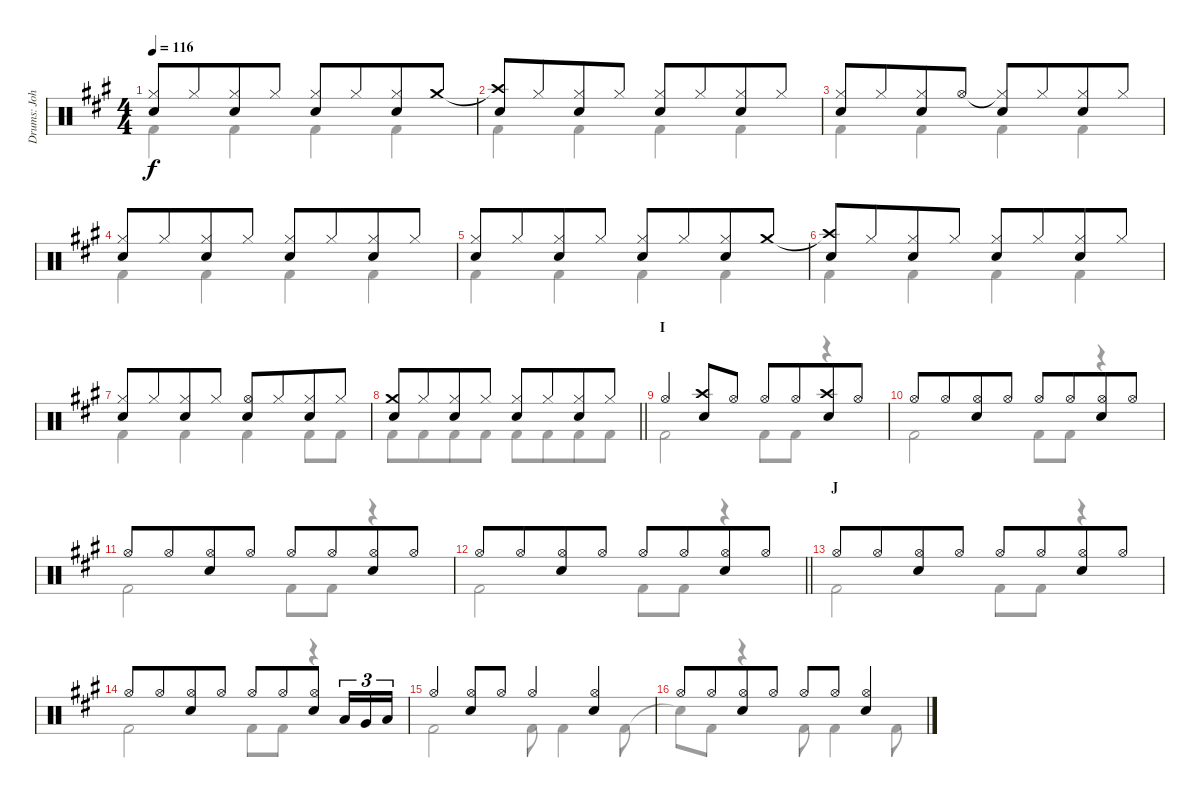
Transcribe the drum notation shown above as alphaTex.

\track ("Drums: John" "Drums: Joh") {instrument percussion}
\staff {score}
\articulation defaults
\voice
\ts (4 4)
\tempo 116
\clef neutral
\ks a
("Hi-Hat (closed)" "Electric Snare (hit)").8{dy f} "Hi-Hat (closed)".8{beam merge} ("Hi-Hat (closed)" "Electric Snare (hit)").8 "Hi-Hat (closed)".8 ("Hi-Hat (closed)" "Electric Snare (hit)").8 "Hi-Hat (closed)".8{beam merge} ("Hi-Hat (closed)" "Electric Snare (hit)").8 "Crash medium (hit)".8 |
("Crash high (hit)"{t} "Electric Snare (hit)").8 "Hi-Hat (closed)".8{beam merge} ("Hi-Hat (closed)" "Electric Snare (hit)").8 "Hi-Hat (closed)".8 ("Hi-Hat (closed)" "Electric Snare (hit)").8 "Hi-Hat (closed)".8{beam merge} ("Hi-Hat (closed)" "Electric Snare (hit)").8 "Hi-Hat (closed)".8 |
("Hi-Hat (closed)" "Electric Snare (hit)").8 "Hi-Hat (closed)".8{beam merge} ("Hi-Hat (closed)" "Electric Snare (hit)").8 "Hi-Hat (open)".8 ("Hi-Hat (closed)"{t} "Electric Snare (hit)").8 "Hi-Hat (closed)".8{beam merge} ("Hi-Hat (closed)" "Electric Snare (hit)").8 "Hi-Hat (closed)".8 |
("Hi-Hat (closed)" "Electric Snare (hit)").8 "Hi-Hat (closed)".8{beam merge} ("Hi-Hat (closed)" "Electric Snare (hit)").8 "Hi-Hat (closed)".8 ("Hi-Hat (closed)" "Electric Snare (hit)").8 "Hi-Hat (closed)".8{beam merge} ("Hi-Hat (closed)" "Electric Snare (hit)").8 "Hi-Hat (closed)".8 |
("Hi-Hat (closed)" "Electric Snare (hit)").8 "Hi-Hat (closed)".8{beam merge} ("Hi-Hat (closed)" "Electric Snare (hit)").8 "Hi-Hat (closed)".8 ("Hi-Hat (closed)" "Electric Snare (hit)").8 "Hi-Hat (closed)".8{beam merge} ("Hi-Hat (closed)" "Electric Snare (hit)").8 "Crash medium (hit)".8 |
("Crash high (hit)"{t} "Electric Snare (hit)").8 "Hi-Hat (closed)".8{beam merge} ("Hi-Hat (closed)" "Electric Snare (hit)").8 "Hi-Hat (closed)".8 ("Hi-Hat (closed)" "Electric Snare (hit)").8 "Hi-Hat (closed)".8{beam merge} ("Hi-Hat (closed)" "Electric Snare (hit)").8 "Hi-Hat (closed)".8 |
("Hi-Hat (closed)" "Electric Snare (hit)").8 "Hi-Hat (closed)".8{beam merge} ("Hi-Hat (closed)" "Electric Snare (hit)").8 "Hi-Hat (closed)".8 ("Hi-Hat (open)" "Electric Snare (hit)").8 "Hi-Hat (closed)".8{beam merge} ("Hi-Hat (closed)" "Electric Snare (hit)").8 "Hi-Hat (closed)".8 |
\barLineRight lightlight
("Crash medium (hit)" "Electric Snare (hit)").8 "Hi-Hat (closed)".8{beam merge} ("Hi-Hat (closed)" "Electric Snare (hit)").8 "Hi-Hat (closed)".8 ("Hi-Hat (closed)" "Electric Snare (hit)").8 "Hi-Hat (closed)".8{beam merge} ("Hi-Hat (closed)" "Electric Snare (hit)").8 "Hi-Hat (closed)".8 |
\section ("" "I")
"Hi-Hat (open)".4 ("Crash high (hit)" "Snare (hit) 2").8 "Hi-Hat (open)".8 "Hi-Hat (open)".8 "Hi-Hat (open)".8{beam merge} ("Crash high (hit)" "Snare (hit) 2").8 "Hi-Hat (open)".8 |
"Hi-Hat (open)".8 "Hi-Hat (open)".8{beam merge} ("Hi-Hat (open)" "Snare (hit) 2").8 "Hi-Hat (open)".8 "Hi-Hat (open)".8 "Hi-Hat (open)".8{beam merge} ("Hi-Hat (open)" "Snare (hit) 2").8 "Hi-Hat (open)".8 |
"Hi-Hat (open)".8 "Hi-Hat (open)".8{beam merge} ("Hi-Hat (open)" "Snare (hit) 2").8 "Hi-Hat (open)".8 "Hi-Hat (open)".8 "Hi-Hat (open)".8{beam merge} ("Hi-Hat (open)" "Snare (hit) 2").8 "Hi-Hat (open)".8 |
\barLineRight lightlight "Hi-Hat (open)".8 "Hi-Hat (open)".8{beam merge}
("Hi-Hat (open)" "Snare (hit) 2").8 "Hi-Hat (open)".8 "Hi-Hat (open)".8 "Hi-Hat (open)".8{beam merge} ("Hi-Hat (open)" "Snare (hit) 2").8 "Hi-Hat (open)".8 |
\section ("" "J")
"Hi-Hat (open)".8 "Hi-Hat (open)".8{beam merge} ("Hi-Hat (open)" "Electric Snare (hit)").8 "Hi-Hat (open)".8 "Hi-Hat (open)".8 "Hi-Hat (open)".8{beam merge} ("Hi-Hat (open)" "Electric Snare (hit)").8 "Hi-Hat (open)".8 |
"Hi-Hat (open)".8 "Hi-Hat (open)".8{beam merge} ("Hi-Hat (open)" "Electric Snare (hit)").8 "Hi-Hat (open)".8 "Hi-Hat (open)".8 "Hi-Hat (open)".8{beam merge} ("Hi-Hat (open)" "Electric Snare (hit)").8 "Low Floor Tom (hit)".16{tu (3 2)} "Very Low Tom (hit)".16{tu (3 2)} "Low Floor Tom (hit)".16{tu (3 2)} |
"Hi-Hat (open)".4{beam merge} ("Hi-Hat (open)" "Electric Snare (hit)").8 "Hi-Hat (open)".8 "Hi-Hat (open)".4{beam merge} ("Hi-Hat (open)" "Electric Snare (hit)").4 |
"Hi-Hat (open)".8 "Hi-Hat (open)".8{beam merge} ("Hi-Hat (open)" "Electric Snare (hit)").8 "Hi-Hat (open)".8 "Hi-Hat (open)".8 "Hi-Hat (open)".8{beam merge} ("Hi-Hat (open)" "Electric Snare (hit)").4
\voice
\clef neutral
\ottava regular
\simile none
\ks a "Kick (hit) 2".4{dy f} "Kick (hit) 2".4 "Kick (hit) 2".4 "Kick (hit) 2".4
|
"Kick (hit) 2".4 "Kick (hit) 2".4 "Kick (hit) 2".4 "Kick (hit) 2".4 |
"Kick (hit) 2".4 "Kick (hit) 2".4 "Kick (hit) 2".4 "Kick (hit) 2".4 |
"Kick (hit) 2".4 "Kick (hit) 2".4 "Kick (hit) 2".4 "Kick (hit) 2".4 |
"Kick (hit) 2".4 "Kick (hit) 2".4 "Kick (hit) 2".4 "Kick (hit) 2".4 |
"Kick (hit) 2".4 "Kick (hit) 2".4 "Kick (hit) 2".4 "Kick (hit) 2".4 |
"Kick (hit) 2".4 "Kick (hit) 2".4 "Kick (hit) 2".4 "Kick (hit) 2".8 "Kick (hit) 2".8 |
\barLineRight lightlight "Kick (hit) 2".8 "Kick (hit) 2".8{beam merge} "Kick (hit) 2".8 "Kick (hit) 2".8 "Kick (hit) 2".8 "Kick (hit) 2".8{beam merge} "Kick (hit) 2".8 "Kick (hit) 2".8
|
"Kick (hit) 2".2 "Kick (hit) 2".8 "Kick (hit) 2".8 r.4 |
"Kick (hit) 2".2 "Kick (hit) 2".8 "Kick (hit) 2".8 r.4 |
"Kick (hit) 2".2 "Kick (hit) 2".8 "Kick (hit) 2".8 r.4 |
\barLineRight lightlight "Kick (hit) 2".2 "Kick (hit) 2".8 "Kick (hit) 2".8
r.4 |
"Kick (hit) 2".2 "Kick (hit) 2".8 "Kick (hit) 2".8 r.4 |
"Kick (hit) 2".2 "Kick (hit) 2".8 "Kick (hit) 2".8 r.4 |
"Kick (hit) 2".2 "Kick (hit) 2".8 "Kick (hit) 2".4 "Kick (hit) 2".8 |
"Snare (hit)"{t}.8 "Kick (hit) 2".8 r.4 "Kick (hit) 2".8 "Kick (hit) 2".4 "Kick (hit) 2".8
